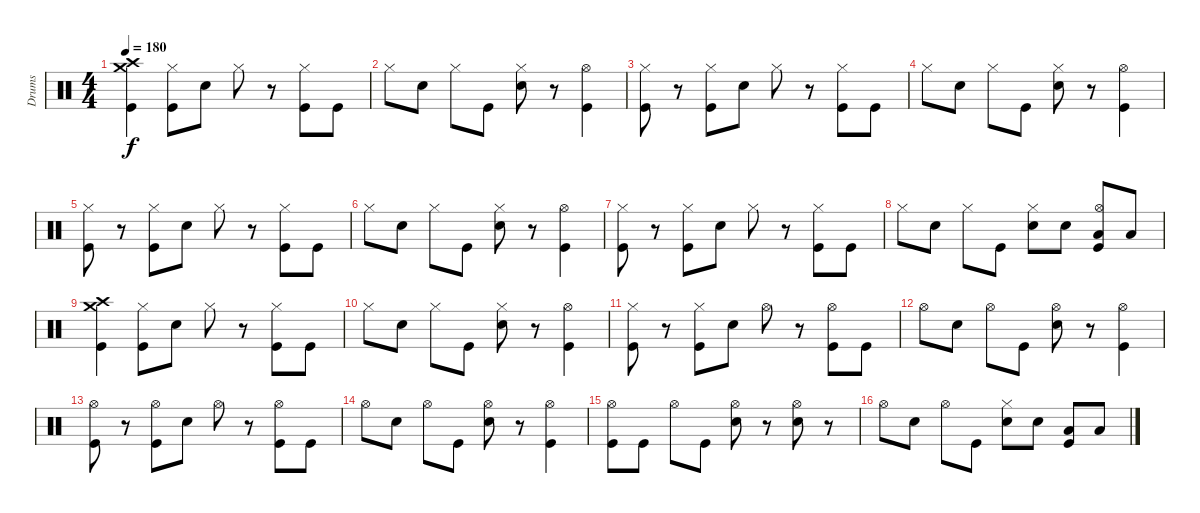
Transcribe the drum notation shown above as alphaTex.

\track ("Drums" "Drums") {instrument percussion}
\staff {score}
\articulation defaults
\ts (4 4)
\tempo 180
\clef neutral
\ks c
("Crash medium (hit)" "Crash high (hit)" "Kick (hit)").4{dy f} ("Hi-Hat (closed)" "Kick (hit)").8 "Snare (hit) 2".8 "Hi-Hat (closed)".8 r.8 ("Hi-Hat (closed)" "Kick (hit)").8 "Kick (hit)".8 |
"Hi-Hat (closed)".8 "Snare (hit) 2".8 "Hi-Hat (closed)".8 "Kick (hit)".8 ("Hi-Hat (closed)" "Snare (hit) 2").8 r.8 ("Hi-Hat (open)" "Kick (hit)").4 |
("Hi-Hat (closed)" "Kick (hit)").8 r.8 ("Hi-Hat (closed)" "Kick (hit)").8 "Snare (hit) 2".8 "Hi-Hat (closed)".8 r.8 ("Hi-Hat (closed)" "Kick (hit)").8 "Kick (hit)".8 |
"Hi-Hat (closed)".8 "Snare (hit) 2".8 "Hi-Hat (closed)".8 "Kick (hit)".8 ("Hi-Hat (closed)" "Snare (hit) 2").8 r.8 ("Hi-Hat (open)" "Kick (hit)").4 |
("Hi-Hat (closed)" "Kick (hit)").8 r.8 ("Hi-Hat (closed)" "Kick (hit)").8 "Snare (hit) 2".8 "Hi-Hat (closed)".8 r.8 ("Hi-Hat (closed)" "Kick (hit)").8 "Kick (hit)".8 |
"Hi-Hat (closed)".8 "Snare (hit) 2".8 "Hi-Hat (closed)".8 "Kick (hit)".8 ("Hi-Hat (closed)" "Snare (hit) 2").8 r.8 ("Hi-Hat (open)" "Kick (hit)").4 |
("Hi-Hat (closed)" "Kick (hit)").8 r.8 ("Hi-Hat (closed)" "Kick (hit)").8 "Snare (hit) 2".8 "Hi-Hat (closed)".8 r.8 ("Hi-Hat (closed)" "Kick (hit)").8 "Kick (hit)".8 |
"Hi-Hat (closed)".8 "Snare (hit) 2".8 "Hi-Hat (closed)".8 "Kick (hit)".8 ("Hi-Hat (closed)" "Snare (hit) 2").8 "Snare (hit) 2".8 ("Low Tom (hit)" "Hi-Hat (open)" "Kick (hit)").8 "Low Tom (hit)".8 |
("Crash medium (hit)" "Crash high (hit)" "Kick (hit)").4 ("Hi-Hat (closed)" "Kick (hit)").8 "Snare (hit) 2".8 "Hi-Hat (closed)".8 r.8 ("Hi-Hat (closed)" "Kick (hit)").8 "Kick (hit)".8 |
"Hi-Hat (closed)".8 "Snare (hit) 2".8 "Hi-Hat (closed)".8 "Kick (hit)".8 ("Hi-Hat (closed)" "Snare (hit) 2").8 r.8 ("Hi-Hat (open)" "Kick (hit)").4 |
("Hi-Hat (closed)" "Kick (hit)").8 r.8 ("Hi-Hat (closed)" "Kick (hit)").8 "Snare (hit) 2".8 "Hi-Hat (open)".8 r.8 ("Hi-Hat (open)" "Kick (hit)").8 "Kick (hit)".8 |
"Hi-Hat (open)".8 "Snare (hit) 2".8 "Hi-Hat (open)".8 "Kick (hit)".8 ("Hi-Hat (open)" "Snare (hit) 2").8 r.8 ("Hi-Hat (open)" "Kick (hit)").4 |
("Hi-Hat (open)" "Kick (hit)").8 r.8 ("Hi-Hat (open)" "Kick (hit)").8 "Snare (hit) 2".8 "Hi-Hat (open)".8 r.8 ("Hi-Hat (open)" "Kick (hit)").8 "Kick (hit)".8 |
"Hi-Hat (open)".8 "Snare (hit) 2".8 "Hi-Hat (open)".8 "Kick (hit)".8 ("Hi-Hat (open)" "Snare (hit) 2").8 r.8 ("Hi-Hat (open)" "Kick (hit)").4 |
("Hi-Hat (open)" "Kick (hit)").8 "Kick (hit)".8 "Hi-Hat (open)".8 "Kick (hit)".8 ("Hi-Hat (open)" "Snare (hit) 2").8 r.8 ("Hi-Hat (open)" "Snare (hit) 2").8 r.8 |
"Hi-Hat (open)".8 "Snare (hit) 2".8 "Hi-Hat (open)".8 "Kick (hit)".8 ("Hi-Hat (closed)" "Snare (hit) 2").8 "Snare (hit) 2".8 ("Low Tom (hit)" "Kick (hit)").8 "Low Tom (hit)".8
